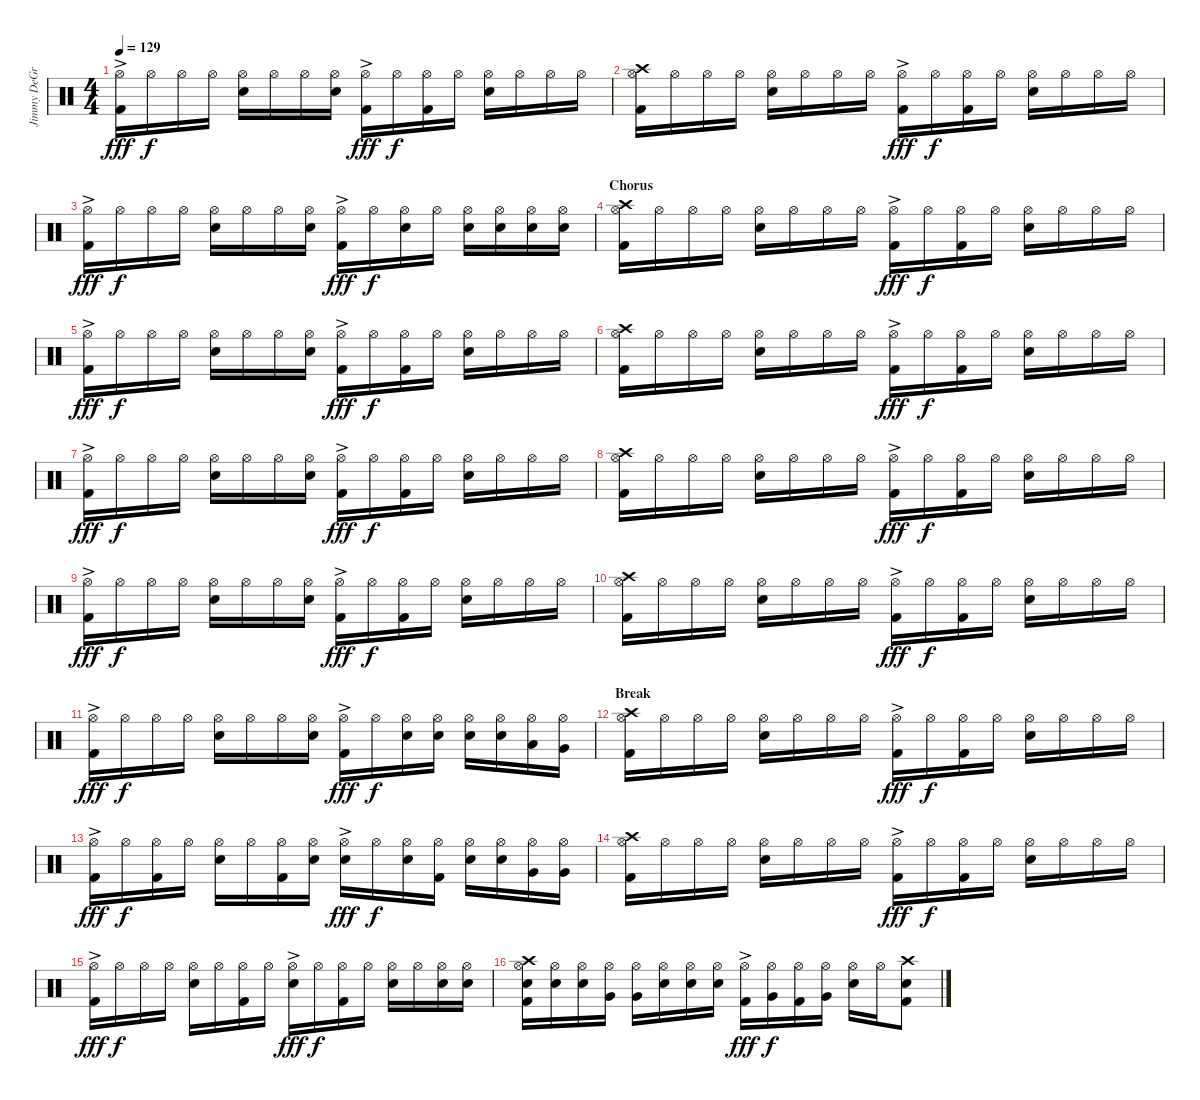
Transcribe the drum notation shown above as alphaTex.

\track ("Jimmy DeGrasso (Drums)" "Jimmy DeGr") {instrument percussion}
\staff {score}
\articulation defaults
\ts (4 4)
\tempo 129
\clef neutral
\ks c
("Hi-Hat (open)"{ac} "Kick (hit) 2").16{dy fff} "Hi-Hat (open)".16{dy f} "Hi-Hat (open)".16 "Hi-Hat (open)".16 ("Hi-Hat (open)" "Electric Snare (hit)").16 "Hi-Hat (open)".16 "Hi-Hat (open)".16 ("Hi-Hat (open)" "Electric Snare (hit)").16 ("Hi-Hat (open)"{ac} "Kick (hit) 2").16{dy fff} "Hi-Hat (open)".16{dy f} ("Hi-Hat (open)" "Kick (hit) 2").16 "Hi-Hat (open)".16 ("Hi-Hat (open)" "Electric Snare (hit)").16 "Hi-Hat (open)".16 "Hi-Hat (open)".16 "Hi-Hat (open)".16 |
("Crash high (hit)" "Hi-Hat (open)" "Kick (hit) 2").16 "Hi-Hat (open)".16 "Hi-Hat (open)".16 "Hi-Hat (open)".16 ("Hi-Hat (open)" "Electric Snare (hit)").16 "Hi-Hat (open)".16 "Hi-Hat (open)".16 "Hi-Hat (open)".16 ("Hi-Hat (open)"{ac} "Kick (hit) 2").16{dy fff} "Hi-Hat (open)".16{dy f} ("Hi-Hat (open)" "Kick (hit) 2").16 "Hi-Hat (open)".16 ("Hi-Hat (open)" "Electric Snare (hit)").16 "Hi-Hat (open)".16 "Hi-Hat (open)".16 "Hi-Hat (open)".16 |
("Hi-Hat (open)"{ac} "Kick (hit) 2").16{dy fff} "Hi-Hat (open)".16{dy f} "Hi-Hat (open)".16 "Hi-Hat (open)".16 ("Hi-Hat (open)" "Electric Snare (hit)").16 "Hi-Hat (open)".16 "Hi-Hat (open)".16 ("Hi-Hat (open)" "Electric Snare (hit)").16 ("Hi-Hat (open)"{ac} "Kick (hit) 2").16{dy fff} "Hi-Hat (open)".16{dy f} ("Hi-Hat (open)" "Electric Snare (hit)").16 "Hi-Hat (open)".16 ("Hi-Hat (open)" "Electric Snare (hit)").16 ("Hi-Hat (open)" "Electric Snare (hit)").16 ("Hi-Hat (open)" "Electric Snare (hit)").16 ("Hi-Hat (open)" "Electric Snare (hit)").16 |
\section ("" "Chorus")
("Crash high (hit)" "Hi-Hat (open)" "Kick (hit) 2").16 "Hi-Hat (open)".16 "Hi-Hat (open)".16 "Hi-Hat (open)".16 ("Hi-Hat (open)" "Electric Snare (hit)").16 "Hi-Hat (open)".16 "Hi-Hat (open)".16 "Hi-Hat (open)".16 ("Hi-Hat (open)"{ac} "Kick (hit) 2").16{dy fff} "Hi-Hat (open)".16{dy f} ("Hi-Hat (open)" "Kick (hit) 2").16 "Hi-Hat (open)".16 ("Hi-Hat (open)" "Electric Snare (hit)").16 "Hi-Hat (open)".16 "Hi-Hat (open)".16 "Hi-Hat (open)".16 |
("Hi-Hat (open)"{ac} "Kick (hit) 2").16{dy fff} "Hi-Hat (open)".16{dy f} "Hi-Hat (open)".16 "Hi-Hat (open)".16 ("Hi-Hat (open)" "Electric Snare (hit)").16 "Hi-Hat (open)".16 "Hi-Hat (open)".16 ("Hi-Hat (open)" "Electric Snare (hit)").16 ("Hi-Hat (open)"{ac} "Kick (hit) 2").16{dy fff} "Hi-Hat (open)".16{dy f} ("Hi-Hat (open)" "Kick (hit) 2").16 "Hi-Hat (open)".16 ("Hi-Hat (open)" "Electric Snare (hit)").16 "Hi-Hat (open)".16 "Hi-Hat (open)".16 "Hi-Hat (open)".16 |
("Crash high (hit)" "Hi-Hat (open)" "Kick (hit) 2").16 "Hi-Hat (open)".16 "Hi-Hat (open)".16 "Hi-Hat (open)".16 ("Hi-Hat (open)" "Electric Snare (hit)").16 "Hi-Hat (open)".16 "Hi-Hat (open)".16 "Hi-Hat (open)".16 ("Hi-Hat (open)"{ac} "Kick (hit) 2").16{dy fff} "Hi-Hat (open)".16{dy f} ("Hi-Hat (open)" "Kick (hit) 2").16 "Hi-Hat (open)".16 ("Hi-Hat (open)" "Electric Snare (hit)").16 "Hi-Hat (open)".16 "Hi-Hat (open)".16 "Hi-Hat (open)".16 |
("Hi-Hat (open)"{ac} "Kick (hit) 2").16{dy fff} "Hi-Hat (open)".16{dy f} "Hi-Hat (open)".16 "Hi-Hat (open)".16 ("Hi-Hat (open)" "Electric Snare (hit)").16 "Hi-Hat (open)".16 "Hi-Hat (open)".16 ("Hi-Hat (open)" "Electric Snare (hit)").16 ("Hi-Hat (open)"{ac} "Kick (hit) 2").16{dy fff} "Hi-Hat (open)".16{dy f} ("Hi-Hat (open)" "Kick (hit) 2").16 "Hi-Hat (open)".16 ("Hi-Hat (open)" "Electric Snare (hit)").16 "Hi-Hat (open)".16 "Hi-Hat (open)".16 "Hi-Hat (open)".16 |
("Crash high (hit)" "Hi-Hat (open)" "Kick (hit) 2").16 "Hi-Hat (open)".16 "Hi-Hat (open)".16 "Hi-Hat (open)".16 ("Hi-Hat (open)" "Electric Snare (hit)").16 "Hi-Hat (open)".16 "Hi-Hat (open)".16 "Hi-Hat (open)".16 ("Hi-Hat (open)"{ac} "Kick (hit) 2").16{dy fff} "Hi-Hat (open)".16{dy f} ("Hi-Hat (open)" "Kick (hit) 2").16 "Hi-Hat (open)".16 ("Hi-Hat (open)" "Electric Snare (hit)").16 "Hi-Hat (open)".16 "Hi-Hat (open)".16 "Hi-Hat (open)".16 |
("Hi-Hat (open)"{ac} "Kick (hit) 2").16{dy fff} "Hi-Hat (open)".16{dy f} "Hi-Hat (open)".16 "Hi-Hat (open)".16 ("Hi-Hat (open)" "Electric Snare (hit)").16 "Hi-Hat (open)".16 "Hi-Hat (open)".16 ("Hi-Hat (open)" "Electric Snare (hit)").16 ("Hi-Hat (open)"{ac} "Kick (hit) 2").16{dy fff} "Hi-Hat (open)".16{dy f} ("Hi-Hat (open)" "Kick (hit) 2").16 "Hi-Hat (open)".16 ("Hi-Hat (open)" "Electric Snare (hit)").16 "Hi-Hat (open)".16 "Hi-Hat (open)".16 "Hi-Hat (open)".16 |
("Crash high (hit)" "Hi-Hat (open)" "Kick (hit) 2").16 "Hi-Hat (open)".16 "Hi-Hat (open)".16 "Hi-Hat (open)".16 ("Hi-Hat (open)" "Electric Snare (hit)").16 "Hi-Hat (open)".16 "Hi-Hat (open)".16 "Hi-Hat (open)".16 ("Hi-Hat (open)"{ac} "Kick (hit) 2").16{dy fff} "Hi-Hat (open)".16{dy f} ("Hi-Hat (open)" "Kick (hit) 2").16 "Hi-Hat (open)".16 ("Hi-Hat (open)" "Electric Snare (hit)").16 "Hi-Hat (open)".16 "Hi-Hat (open)".16 "Hi-Hat (open)".16 |
("Hi-Hat (open)"{ac} "Kick (hit) 2").16{dy fff} "Hi-Hat (open)".16{dy f} "Hi-Hat (open)".16 "Hi-Hat (open)".16 ("Hi-Hat (open)" "Electric Snare (hit)").16 "Hi-Hat (open)".16 "Hi-Hat (open)".16 ("Hi-Hat (open)" "Electric Snare (hit)").16 ("Hi-Hat (open)"{ac} "Kick (hit) 2").16{dy fff} "Hi-Hat (open)".16{dy f} ("Hi-Hat (open)" "Electric Snare (hit)").16 ("Hi-Hat (open)" "Electric Snare (hit)").16 ("Hi-Hat (open)" "Electric Snare (hit)").16 ("Hi-Hat (open)" "Electric Snare (hit)").16 ("Hi-Hat (open)" "Low Tom (hit)").16 ("Hi-Hat (open)" "Very Low Tom (hit)").16 |
\section ("" "Break")
("Crash high (hit)" "Hi-Hat (open)" "Kick (hit) 2").16 "Hi-Hat (open)".16 "Hi-Hat (open)".16 "Hi-Hat (open)".16 ("Hi-Hat (open)" "Electric Snare (hit)").16 "Hi-Hat (open)".16 "Hi-Hat (open)".16 "Hi-Hat (open)".16 ("Hi-Hat (open)"{ac} "Kick (hit) 2").16{dy fff} "Hi-Hat (open)".16{dy f} ("Hi-Hat (open)" "Kick (hit) 2").16 "Hi-Hat (open)".16 ("Hi-Hat (open)" "Electric Snare (hit)").16 "Hi-Hat (open)".16 "Hi-Hat (open)".16 "Hi-Hat (open)".16 |
("Hi-Hat (open)"{ac} "Kick (hit) 2").16{dy fff} "Hi-Hat (open)".16{dy f} ("Hi-Hat (open)" "Kick (hit) 2").16 "Hi-Hat (open)".16 ("Hi-Hat (open)" "Electric Snare (hit)").16 "Hi-Hat (open)".16 ("Hi-Hat (open)" "Kick (hit) 2").16 ("Hi-Hat (open)" "Electric Snare (hit)").16 ("Hi-Hat (open)"{ac} "Electric Snare (hit)").16{dy fff} "Hi-Hat (open)".16{dy f} ("Hi-Hat (open)" "Electric Snare (hit)").16 ("Hi-Hat (open)" "Kick (hit) 2").16 ("Hi-Hat (open)" "Electric Snare (hit)").16 ("Hi-Hat (open)" "Electric Snare (hit)").16 ("Hi-Hat (open)" "Very Low Tom (hit)").16 ("Hi-Hat (open)" "Very Low Tom (hit)").16 |
("Crash high (hit)" "Hi-Hat (open)" "Kick (hit) 2").16 "Hi-Hat (open)".16 "Hi-Hat (open)".16 "Hi-Hat (open)".16 ("Hi-Hat (open)" "Electric Snare (hit)").16 "Hi-Hat (open)".16 "Hi-Hat (open)".16 "Hi-Hat (open)".16 ("Hi-Hat (open)"{ac} "Kick (hit) 2").16{dy fff} "Hi-Hat (open)".16{dy f} ("Hi-Hat (open)" "Kick (hit) 2").16 "Hi-Hat (open)".16 ("Hi-Hat (open)" "Electric Snare (hit)").16 "Hi-Hat (open)".16 "Hi-Hat (open)".16 "Hi-Hat (open)".16 |
("Hi-Hat (open)"{ac} "Kick (hit) 2").16{dy fff} "Hi-Hat (open)".16{dy f} "Hi-Hat (open)".16 "Hi-Hat (open)".16 ("Hi-Hat (open)" "Electric Snare (hit)").16 "Hi-Hat (open)".16 ("Hi-Hat (open)" "Kick (hit) 2").16 "Hi-Hat (open)".16 ("Hi-Hat (open)"{ac} "Electric Snare (hit)").16{dy fff} "Hi-Hat (open)".16{dy f} ("Hi-Hat (open)" "Kick (hit) 2").16 "Hi-Hat (open)".16 ("Hi-Hat (open)" "Electric Snare (hit)").16 "Hi-Hat (open)".16 ("Hi-Hat (open)" "Electric Snare (hit)").16 ("Hi-Hat (open)" "Electric Snare (hit)").16 |
("Crash high (hit)" "Hi-Hat (open)" "Electric Snare (hit)" "Kick (hit) 2").16 ("Hi-Hat (open)" "Electric Snare (hit)").16 ("Hi-Hat (open)" "Electric Snare (hit)").16 ("Hi-Hat (open)" "Very Low Tom (hit)").16 ("Hi-Hat (open)" "Very Low Tom (hit)").16 ("Hi-Hat (open)" "Electric Snare (hit)").16 ("Hi-Hat (open)" "Electric Snare (hit)").16 ("Hi-Hat (open)" "Electric Snare (hit)").16 ("Hi-Hat (open)"{ac} "Kick (hit) 2").16{dy fff} ("Hi-Hat (open)" "Very Low Tom (hit)").16{dy f} ("Hi-Hat (open)" "Kick (hit) 2").16 ("Hi-Hat (open)" "Very Low Tom (hit)").16 ("Hi-Hat (open)" "Electric Snare (hit)").16 "Hi-Hat (open)".16 ("Crash high (hit)" "Electric Snare (hit)" "Kick (hit) 2").8
